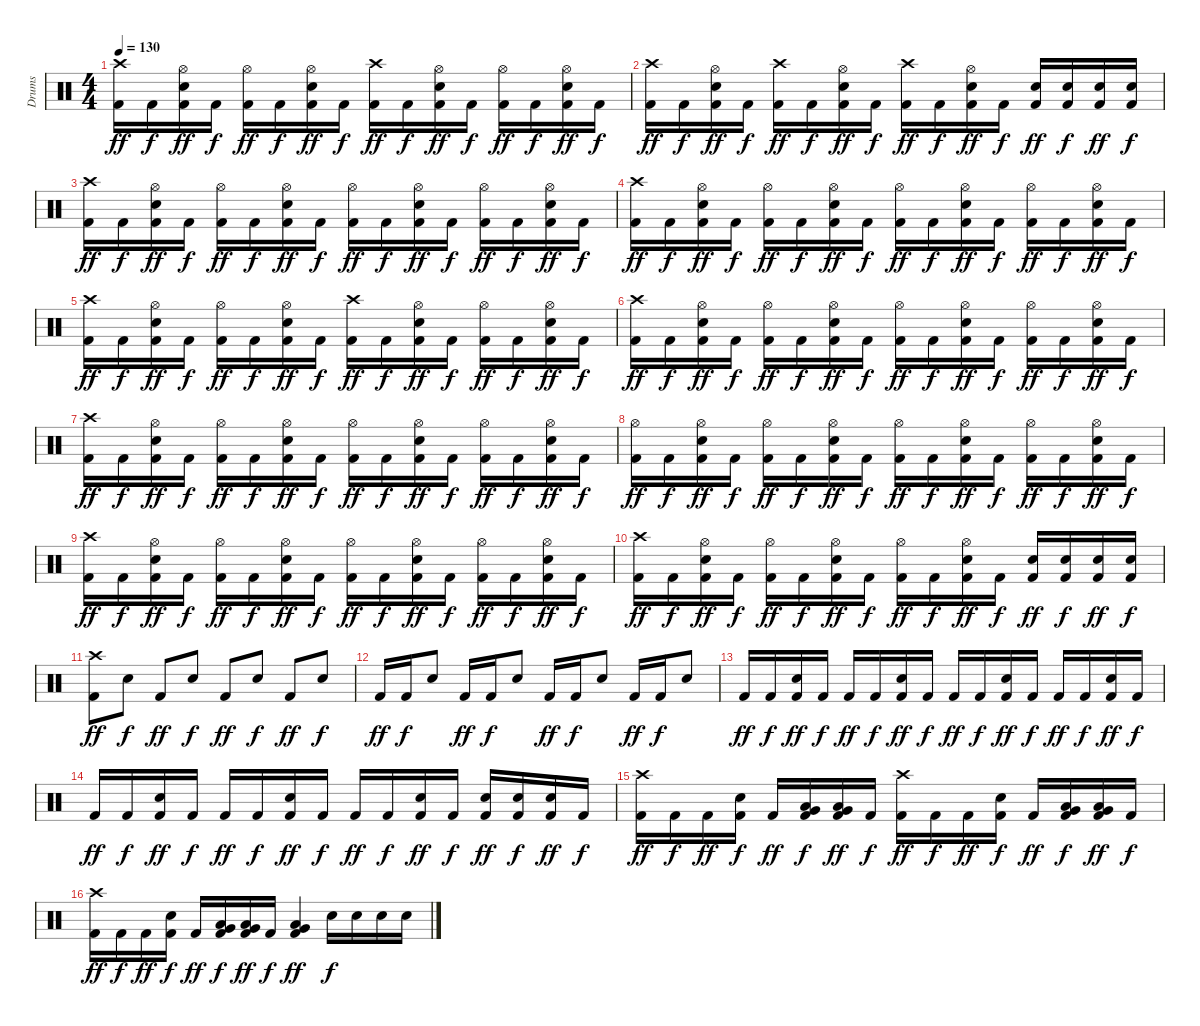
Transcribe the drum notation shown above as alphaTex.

\track ("Drums" "Drums") {instrument percussion}
\staff {score}
\articulation defaults
\ts (4 4)
\tempo 130
\clef neutral
\ks c
("Crash high (hit)" "Kick (hit) 2").16{dy ff} "Kick (hit) 2".16{dy f} ("Hi-Hat (open)" "Electric Snare (hit)" "Kick (hit) 2").16{dy ff} "Kick (hit) 2".16{dy f} ("Hi-Hat (open)" "Kick (hit) 2").16{dy ff} "Kick (hit) 2".16{dy f} ("Hi-Hat (open)" "Electric Snare (hit)" "Kick (hit) 2").16{dy ff} "Kick (hit) 2".16{dy f} ("Crash high (hit)" "Kick (hit) 2").16{dy ff} "Kick (hit) 2".16{dy f} ("Hi-Hat (open)" "Electric Snare (hit)" "Kick (hit) 2").16{dy ff} "Kick (hit) 2".16{dy f} ("Hi-Hat (open)" "Kick (hit) 2").16{dy ff} "Kick (hit) 2".16{dy f} ("Hi-Hat (open)" "Electric Snare (hit)" "Kick (hit) 2").16{dy ff} "Kick (hit) 2".16{dy f} |
("Crash high (hit)" "Kick (hit) 2").16{dy ff} "Kick (hit) 2".16{dy f} ("Hi-Hat (open)" "Electric Snare (hit)" "Kick (hit) 2").16{dy ff} "Kick (hit) 2".16{dy f} ("Crash high (hit)" "Kick (hit) 2").16{dy ff} "Kick (hit) 2".16{dy f} ("Hi-Hat (open)" "Electric Snare (hit)" "Kick (hit) 2").16{dy ff} "Kick (hit) 2".16{dy f} ("Crash high (hit)" "Kick (hit) 2").16{dy ff} "Kick (hit) 2".16{dy f} ("Hi-Hat (open)" "Electric Snare (hit)" "Kick (hit) 2").16{dy ff} "Kick (hit) 2".16{dy f} ("Electric Snare (hit)" "Kick (hit) 2").16{dy ff} ("Electric Snare (hit)" "Kick (hit) 2").16{dy f} ("Electric Snare (hit)" "Kick (hit) 2").16{dy ff} ("Electric Snare (hit)" "Kick (hit) 2").16{dy f} |
("Crash high (hit)" "Kick (hit) 2").16{dy ff} "Kick (hit) 2".16{dy f} ("Hi-Hat (open)" "Electric Snare (hit)" "Kick (hit) 2").16{dy ff} "Kick (hit) 2".16{dy f} ("Hi-Hat (open)" "Kick (hit) 2").16{dy ff} "Kick (hit) 2".16{dy f} ("Hi-Hat (open)" "Electric Snare (hit)" "Kick (hit) 2").16{dy ff} "Kick (hit) 2".16{dy f} ("Hi-Hat (open)" "Kick (hit) 2").16{dy ff} "Kick (hit) 2".16{dy f} ("Hi-Hat (open)" "Electric Snare (hit)" "Kick (hit) 2").16{dy ff} "Kick (hit) 2".16{dy f} ("Hi-Hat (open)" "Kick (hit) 2").16{dy ff} "Kick (hit) 2".16{dy f} ("Hi-Hat (open)" "Electric Snare (hit)" "Kick (hit) 2").16{dy ff} "Kick (hit) 2".16{dy f} |
("Crash high (hit)" "Kick (hit) 2").16{dy ff} "Kick (hit) 2".16{dy f} ("Hi-Hat (open)" "Electric Snare (hit)" "Kick (hit) 2").16{dy ff} "Kick (hit) 2".16{dy f} ("Hi-Hat (open)" "Kick (hit) 2").16{dy ff} "Kick (hit) 2".16{dy f} ("Hi-Hat (open)" "Electric Snare (hit)" "Kick (hit) 2").16{dy ff} "Kick (hit) 2".16{dy f} ("Hi-Hat (open)" "Kick (hit) 2").16{dy ff} "Kick (hit) 2".16{dy f} ("Hi-Hat (open)" "Electric Snare (hit)" "Kick (hit) 2").16{dy ff} "Kick (hit) 2".16{dy f} ("Hi-Hat (open)" "Kick (hit) 2").16{dy ff} "Kick (hit) 2".16{dy f} ("Hi-Hat (open)" "Electric Snare (hit)" "Kick (hit) 2").16{dy ff} "Kick (hit) 2".16{dy f} |
("Crash high (hit)" "Kick (hit) 2").16{dy ff} "Kick (hit) 2".16{dy f} ("Hi-Hat (open)" "Electric Snare (hit)" "Kick (hit) 2").16{dy ff} "Kick (hit) 2".16{dy f} ("Hi-Hat (open)" "Kick (hit) 2").16{dy ff} "Kick (hit) 2".16{dy f} ("Hi-Hat (open)" "Electric Snare (hit)" "Kick (hit) 2").16{dy ff} "Kick (hit) 2".16{dy f} ("Crash high (hit)" "Kick (hit) 2").16{dy ff} "Kick (hit) 2".16{dy f} ("Hi-Hat (open)" "Electric Snare (hit)" "Kick (hit) 2").16{dy ff} "Kick (hit) 2".16{dy f} ("Hi-Hat (open)" "Kick (hit) 2").16{dy ff} "Kick (hit) 2".16{dy f} ("Hi-Hat (open)" "Electric Snare (hit)" "Kick (hit) 2").16{dy ff} "Kick (hit) 2".16{dy f} |
("Crash high (hit)" "Kick (hit) 2").16{dy ff} "Kick (hit) 2".16{dy f} ("Hi-Hat (open)" "Electric Snare (hit)" "Kick (hit) 2").16{dy ff} "Kick (hit) 2".16{dy f} ("Hi-Hat (open)" "Kick (hit) 2").16{dy ff} "Kick (hit) 2".16{dy f} ("Hi-Hat (open)" "Electric Snare (hit)" "Kick (hit) 2").16{dy ff} "Kick (hit) 2".16{dy f} ("Hi-Hat (open)" "Kick (hit) 2").16{dy ff} "Kick (hit) 2".16{dy f} ("Hi-Hat (open)" "Electric Snare (hit)" "Kick (hit) 2").16{dy ff} "Kick (hit) 2".16{dy f} ("Hi-Hat (open)" "Kick (hit) 2").16{dy ff} "Kick (hit) 2".16{dy f} ("Hi-Hat (open)" "Electric Snare (hit)" "Kick (hit) 2").16{dy ff} "Kick (hit) 2".16{dy f} |
("Crash high (hit)" "Kick (hit) 2").16{dy ff} "Kick (hit) 2".16{dy f} ("Hi-Hat (open)" "Electric Snare (hit)" "Kick (hit) 2").16{dy ff} "Kick (hit) 2".16{dy f} ("Hi-Hat (open)" "Kick (hit) 2").16{dy ff} "Kick (hit) 2".16{dy f} ("Hi-Hat (open)" "Electric Snare (hit)" "Kick (hit) 2").16{dy ff} "Kick (hit) 2".16{dy f} ("Hi-Hat (open)" "Kick (hit) 2").16{dy ff} "Kick (hit) 2".16{dy f} ("Hi-Hat (open)" "Electric Snare (hit)" "Kick (hit) 2").16{dy ff} "Kick (hit) 2".16{dy f} ("Hi-Hat (open)" "Kick (hit) 2").16{dy ff} "Kick (hit) 2".16{dy f} ("Hi-Hat (open)" "Electric Snare (hit)" "Kick (hit) 2").16{dy ff} "Kick (hit) 2".16{dy f} |
("Hi-Hat (open)" "Kick (hit) 2").16{dy ff} "Kick (hit) 2".16{dy f} ("Hi-Hat (open)" "Electric Snare (hit)" "Kick (hit) 2").16{dy ff} "Kick (hit) 2".16{dy f} ("Hi-Hat (open)" "Kick (hit) 2").16{dy ff} "Kick (hit) 2".16{dy f} ("Hi-Hat (open)" "Electric Snare (hit)" "Kick (hit) 2").16{dy ff} "Kick (hit) 2".16{dy f} ("Hi-Hat (open)" "Kick (hit) 2").16{dy ff} "Kick (hit) 2".16{dy f} ("Hi-Hat (open)" "Electric Snare (hit)" "Kick (hit) 2").16{dy ff} "Kick (hit) 2".16{dy f} ("Hi-Hat (open)" "Kick (hit) 2").16{dy ff} "Kick (hit) 2".16{dy f} ("Hi-Hat (open)" "Electric Snare (hit)" "Kick (hit) 2").16{dy ff} "Kick (hit) 2".16{dy f} |
("Crash high (hit)" "Kick (hit) 2").16{dy ff} "Kick (hit) 2".16{dy f} ("Hi-Hat (open)" "Electric Snare (hit)" "Kick (hit) 2").16{dy ff} "Kick (hit) 2".16{dy f} ("Hi-Hat (open)" "Kick (hit) 2").16{dy ff} "Kick (hit) 2".16{dy f} ("Hi-Hat (open)" "Electric Snare (hit)" "Kick (hit) 2").16{dy ff} "Kick (hit) 2".16{dy f} ("Hi-Hat (open)" "Kick (hit) 2").16{dy ff} "Kick (hit) 2".16{dy f} ("Hi-Hat (open)" "Electric Snare (hit)" "Kick (hit) 2").16{dy ff} "Kick (hit) 2".16{dy f} ("Hi-Hat (open)" "Kick (hit) 2").16{dy ff} "Kick (hit) 2".16{dy f} ("Hi-Hat (open)" "Electric Snare (hit)" "Kick (hit) 2").16{dy ff} "Kick (hit) 2".16{dy f} |
("Crash high (hit)" "Kick (hit) 2").16{dy ff} "Kick (hit) 2".16{dy f} ("Hi-Hat (open)" "Electric Snare (hit)" "Kick (hit) 2").16{dy ff} "Kick (hit) 2".16{dy f} ("Hi-Hat (open)" "Kick (hit) 2").16{dy ff} "Kick (hit) 2".16{dy f} ("Hi-Hat (open)" "Electric Snare (hit)" "Kick (hit) 2").16{dy ff} "Kick (hit) 2".16{dy f} ("Hi-Hat (open)" "Kick (hit) 2").16{dy ff} "Kick (hit) 2".16{dy f} ("Hi-Hat (open)" "Electric Snare (hit)" "Kick (hit) 2").16{dy ff} "Kick (hit) 2".16{dy f} ("Electric Snare (hit)" "Kick (hit) 2").16{dy ff} ("Electric Snare (hit)" "Kick (hit) 2").16{dy f} ("Electric Snare (hit)" "Kick (hit) 2").16{dy ff} ("Electric Snare (hit)" "Kick (hit) 2").16{dy f} |
("Crash high (hit)" "Kick (hit) 2").8{dy ff} "Electric Snare (hit)".8{dy f} "Kick (hit) 2".8{dy ff} "Electric Snare (hit)".8{dy f} "Kick (hit) 2".8{dy ff} "Electric Snare (hit)".8{dy f} "Kick (hit) 2".8{dy ff} "Electric Snare (hit)".8{dy f} |
"Kick (hit) 2".16{dy ff} "Kick (hit) 2".16{dy f} "Electric Snare (hit)".8 "Kick (hit) 2".16{dy ff} "Kick (hit) 2".16{dy f} "Electric Snare (hit)".8 "Kick (hit) 2".16{dy ff} "Kick (hit) 2".16{dy f} "Electric Snare (hit)".8 "Kick (hit) 2".16{dy ff} "Kick (hit) 2".16{dy f} "Electric Snare (hit)".8 |
"Kick (hit) 2".16{dy ff} "Kick (hit) 2".16{dy f} ("Electric Snare (hit)" "Kick (hit) 2").16{dy ff} "Kick (hit) 2".16{dy f} "Kick (hit) 2".16{dy ff} "Kick (hit) 2".16{dy f} ("Electric Snare (hit)" "Kick (hit) 2").16{dy ff} "Kick (hit) 2".16{dy f} "Kick (hit) 2".16{dy ff} "Kick (hit) 2".16{dy f} ("Electric Snare (hit)" "Kick (hit) 2").16{dy ff} "Kick (hit) 2".16{dy f} "Kick (hit) 2".16{dy ff} "Kick (hit) 2".16{dy f} ("Electric Snare (hit)" "Kick (hit) 2").16{dy ff} "Kick (hit) 2".16{dy f} |
"Kick (hit) 2".16{dy ff} "Kick (hit) 2".16{dy f} ("Electric Snare (hit)" "Kick (hit) 2").16{dy ff} "Kick (hit) 2".16{dy f} "Kick (hit) 2".16{dy ff} "Kick (hit) 2".16{dy f} ("Electric Snare (hit)" "Kick (hit) 2").16{dy ff} "Kick (hit) 2".16{dy f} "Kick (hit) 2".16{dy ff} "Kick (hit) 2".16{dy f} ("Electric Snare (hit)" "Kick (hit) 2").16{dy ff} "Kick (hit) 2".16{dy f} ("Electric Snare (hit)" "Kick (hit) 2").16{dy ff} ("Electric Snare (hit)" "Kick (hit) 2").16{dy f} ("Electric Snare (hit)" "Kick (hit) 2").16{dy ff} "Kick (hit) 2".16{dy f} |
("Crash high (hit)" "Kick (hit) 2").16{dy ff} "Kick (hit) 2".16{dy f} "Kick (hit) 2".16{dy ff} ("Electric Snare (hit)" "Kick (hit) 2").16{dy f} "Kick (hit) 2".16{dy ff} ("Low Floor Tom (hit)" "Very Low Tom (hit)" "Kick (hit) 2").16{dy f} ("Very Low Tom (hit)" "Low Floor Tom (hit)" "Kick (hit) 2").16{dy ff} "Kick (hit) 2".16{dy f} ("Crash high (hit)" "Kick (hit) 2").16{dy ff} "Kick (hit) 2".16{dy f} "Kick (hit) 2".16{dy ff} ("Electric Snare (hit)" "Kick (hit) 2").16{dy f} "Kick (hit) 2".16{dy ff} ("Very Low Tom (hit)" "Low Floor Tom (hit)" "Kick (hit) 2").16{dy f} ("Very Low Tom (hit)" "Low Floor Tom (hit)" "Kick (hit) 2").16{dy ff} "Kick (hit) 2".16{dy f} |
("Crash high (hit)" "Kick (hit) 2").16{dy ff} "Kick (hit) 2".16{dy f} "Kick (hit) 2".16{dy ff} ("Electric Snare (hit)" "Kick (hit) 2").16{dy f} "Kick (hit) 2".16{dy ff} ("Very Low Tom (hit)" "Low Floor Tom (hit)" "Kick (hit) 2").16{dy f} ("Very Low Tom (hit)" "Low Floor Tom (hit)" "Kick (hit) 2").16{dy ff} "Kick (hit) 2".16{dy f} ("Low Floor Tom (hit)" "Very Low Tom (hit)" "Kick (hit) 2").4{dy ff} "Electric Snare (hit)".16{dy f} "Electric Snare (hit)".16 "Electric Snare (hit)".16 "Electric Snare (hit)".16
